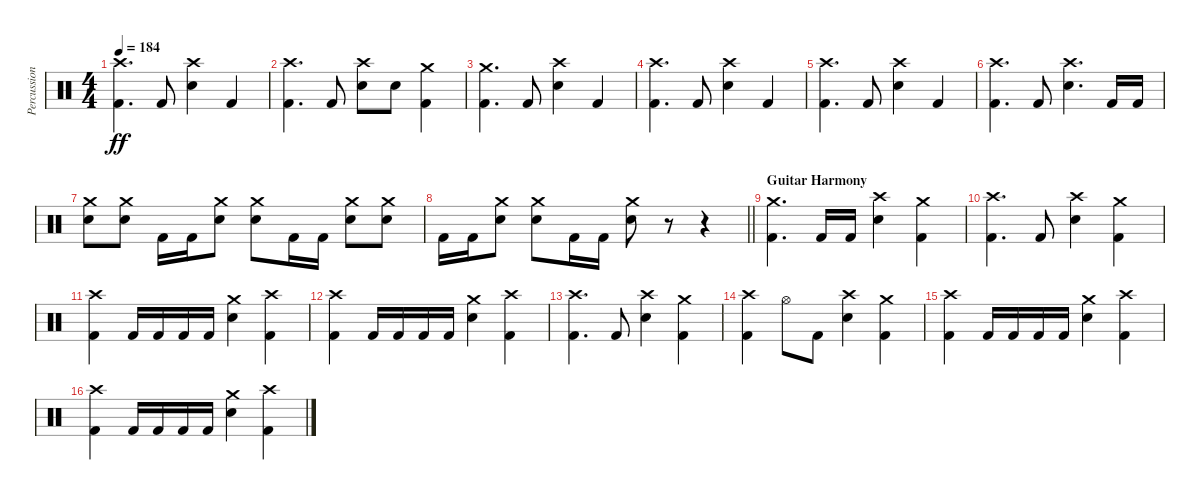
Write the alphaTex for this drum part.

\track ("Percussion" "Percussion") {instrument percussion}
\staff {score}
\articulation defaults
\ts (4 4)
\tempo 184
\clef neutral
\ks c
("Crash high (hit)" "Kick (hit) 2").4{d dy ff} "Kick (hit) 2".8 ("Crash high (hit)" "Electric Snare (hit)").4 "Kick (hit) 2".4 |
("Crash high (hit)" "Kick (hit) 2").4{d} "Kick (hit) 2".8 ("Crash high (hit)" "Electric Snare (hit)").8 "Electric Snare (hit)".8 ("Crash medium (hit)" "Kick (hit) 2").4 |
("Crash medium (hit)" "Kick (hit) 2").4{d} "Kick (hit) 2".8 ("Crash high (hit)" "Electric Snare (hit)").4 "Kick (hit) 2".4 |
("Crash high (hit)" "Kick (hit) 2").4{d} "Kick (hit) 2".8 ("Crash high (hit)" "Electric Snare (hit)").4 "Kick (hit) 2".4 |
("Crash high (hit)" "Kick (hit) 2").4{d} "Kick (hit) 2".8 ("Crash high (hit)" "Electric Snare (hit)").4 "Kick (hit) 2".4 |
("Crash high (hit)" "Kick (hit) 2").4{d} "Kick (hit) 2".8 ("Crash high (hit)" "Electric Snare (hit)").4{d} "Kick (hit) 2".16 "Kick (hit) 2".16 |
("Crash medium (hit)" "Electric Snare (hit)").8 ("Crash medium (hit)" "Electric Snare (hit)").8 "Kick (hit) 2".16 "Kick (hit) 2".16 ("Crash medium (hit)" "Electric Snare (hit)").8 ("Crash medium (hit)" "Electric Snare (hit)").8 "Kick (hit) 2".16 "Kick (hit) 2".16 ("Crash medium (hit)" "Electric Snare (hit)").8 ("Crash medium (hit)" "Electric Snare (hit)").8 |
\barLineRight lightlight "Kick (hit) 2".16 "Kick (hit) 2".16
("Crash medium (hit)" "Electric Snare (hit)").8 ("Crash medium (hit)" "Electric Snare (hit)").8 "Kick (hit) 2".16 "Kick (hit) 2".16 ("Crash medium (hit)" "Electric Snare (hit)").8 r.8 r.4 |
\section ("" "Guitar Harmony")
("Crash medium (hit)" "Kick (hit) 2").4{d} "Kick (hit) 2".16 "Kick (hit) 2".16 ("Crash high (hit)" "Electric Snare (hit)").4 ("Crash medium (hit)" "Kick (hit) 2").4 |
("Crash high (hit)" "Kick (hit) 2").4{d} "Kick (hit) 2".8 ("Crash high (hit)" "Electric Snare (hit)").4 ("Crash medium (hit)" "Kick (hit) 2").4 |
("Crash high (hit)" "Kick (hit) 2").4 "Kick (hit) 2".16 "Kick (hit) 2".16 "Kick (hit) 2".16 "Kick (hit) 2".16 ("Crash medium (hit)" "Electric Snare (hit)").4 ("Crash high (hit)" "Kick (hit) 2").4 |
("Crash high (hit)" "Kick (hit) 2").4 "Kick (hit) 2".16 "Kick (hit) 2".16 "Kick (hit) 2".16 "Kick (hit) 2".16 ("Crash medium (hit)" "Electric Snare (hit)").4 ("Crash high (hit)" "Kick (hit) 2").4 |
("Crash high (hit)" "Kick (hit) 2").4{d} "Kick (hit) 2".8 ("Crash high (hit)" "Electric Snare (hit)").4 ("Crash medium (hit)" "Kick (hit) 2").4 |
("Crash high (hit)" "Kick (hit) 2").4 "Hi-Hat (open)".8 "Kick (hit) 2".8 ("Crash high (hit)" "Electric Snare (hit)").4 ("Crash medium (hit)" "Kick (hit) 2").4 |
("Crash high (hit)" "Kick (hit) 2").4 "Kick (hit) 2".16 "Kick (hit) 2".16 "Kick (hit) 2".16 "Kick (hit) 2".16 ("Crash medium (hit)" "Electric Snare (hit)").4 ("Crash high (hit)" "Kick (hit) 2").4 |
("Crash high (hit)" "Kick (hit) 2").4 "Kick (hit) 2".16 "Kick (hit) 2".16 "Kick (hit) 2".16 "Kick (hit) 2".16 ("Crash medium (hit)" "Electric Snare (hit)").4 ("Crash high (hit)" "Kick (hit) 2").4
